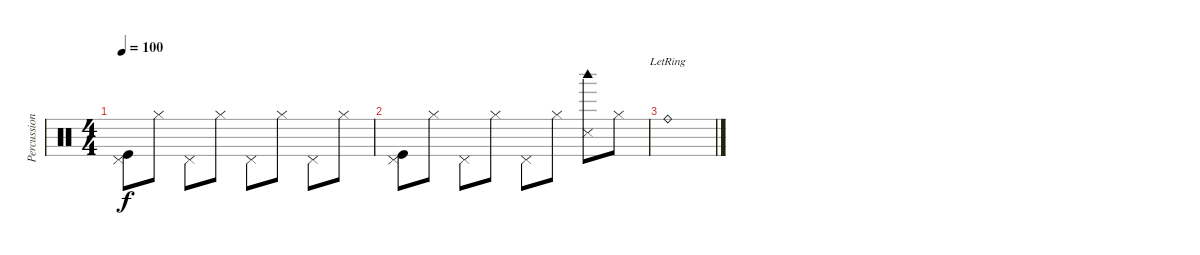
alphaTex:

\track ("Percussion" "Percussion") {instrument percussion}
\staff {score}
\articulation defaults
\ts (4 4)
\tempo 100
\clef neutral
\ks c
("Pedal Hi-Hat (hit)" "Kick (hit)").8{dy f} "Hi-Hat (closed)".8 "Pedal Hi-Hat (hit)".8 "Hi-Hat (closed)".8 "Pedal Hi-Hat (hit)".8 "Hi-Hat (closed)".8 "Pedal Hi-Hat (hit)".8 "Hi-Hat (closed)".8 |
("Pedal Hi-Hat (hit)" "Kick (hit)").8 "Hi-Hat (closed)".8 "Pedal Hi-Hat (hit)".8 "Hi-Hat (closed)".8 "Pedal Hi-Hat (hit)".8 "Hi-Hat (closed)".8 ("Snare (side stick) 3" "Woodblock high (hit)").8 "Hi-Hat (closed)".8 |
"Ride (bell)"{lr}.1
